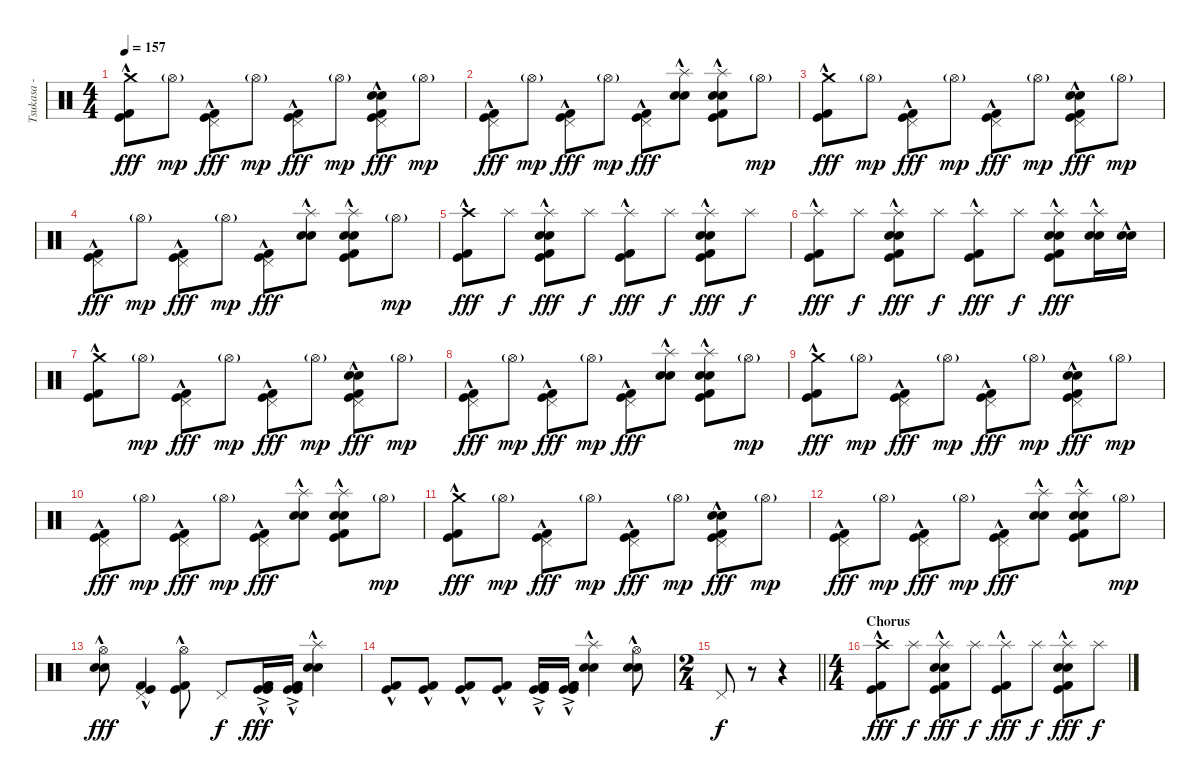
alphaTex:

\track ("Tsukasa - Drums" "Tsukasa - ") {instrument percussion}
\staff {score}
\articulation defaults
\ts (4 4)
\tempo 157
\clef neutral
\ks c
("Crash medium (hit)" "Kick (hit)"{hac} "Kick (hit) 2"{hac}).8{dy fff} "Hi-Hat (open)"{g}.8{dy mp} ("Pedal Hi-Hat (hit)" "Kick (hit)"{hac} "Kick (hit) 2"{hac}).8{dy fff} "Hi-Hat (open)"{g}.8{dy mp} ("Pedal Hi-Hat (hit)" "Kick (hit)"{hac} "Kick (hit) 2"{hac}).8{dy fff} "Hi-Hat (open)"{g}.8{dy mp} ("Pedal Hi-Hat (hit)" "Electric Snare (hit)"{hac} "Snare (hit) 2"{hac} "Kick (hit)"{hac} "Kick (hit) 2"{hac}).8{dy fff} "Hi-Hat (open)"{g}.8{dy mp} |
("Pedal Hi-Hat (hit)" "Kick (hit)"{hac} "Kick (hit) 2"{hac}).8{dy fff} "Hi-Hat (open)"{g}.8{dy mp} ("Pedal Hi-Hat (hit)" "Kick (hit)"{hac} "Kick (hit) 2"{hac}).8{dy fff} "Hi-Hat (open)"{g}.8{dy mp} ("Pedal Hi-Hat (hit)" "Kick (hit)"{hac} "Kick (hit) 2"{hac}).8{dy fff} ("Splash (hit)"{hac} "Electric Snare (hit)"{hac} "Snare (hit) 2"{hac}).8 ("Splash (hit)"{hac} "Electric Snare (hit)"{hac} "Snare (hit) 2"{hac} "Kick (hit)"{hac} "Kick (hit) 2"{hac}).8 "Hi-Hat (open)"{g}.8{dy mp} |
("Crash medium (hit)" "Kick (hit)"{hac} "Kick (hit) 2"{hac}).8{dy fff} "Hi-Hat (open)"{g}.8{dy mp} ("Pedal Hi-Hat (hit)" "Kick (hit)"{hac} "Kick (hit) 2"{hac}).8{dy fff} "Hi-Hat (open)"{g}.8{dy mp} ("Pedal Hi-Hat (hit)" "Kick (hit)"{hac} "Kick (hit) 2"{hac}).8{dy fff} "Hi-Hat (open)"{g}.8{dy mp} ("Pedal Hi-Hat (hit)" "Electric Snare (hit)"{hac} "Snare (hit) 2"{hac} "Kick (hit)"{hac} "Kick (hit) 2"{hac}).8{dy fff} "Hi-Hat (open)"{g}.8{dy mp} |
("Pedal Hi-Hat (hit)" "Kick (hit)"{hac} "Kick (hit) 2"{hac}).8{dy fff} "Hi-Hat (open)"{g}.8{dy mp} ("Pedal Hi-Hat (hit)" "Kick (hit)"{hac} "Kick (hit) 2"{hac}).8{dy fff} "Hi-Hat (open)"{g}.8{dy mp} ("Pedal Hi-Hat (hit)" "Kick (hit)"{hac} "Kick (hit) 2"{hac}).8{dy fff} ("Splash (hit)"{hac} "Electric Snare (hit)"{hac} "Snare (hit) 2"{hac}).8 ("Splash (hit)"{hac} "Electric Snare (hit)"{hac} "Snare (hit) 2"{hac} "Kick (hit)"{hac} "Kick (hit) 2"{hac}).8 "Hi-Hat (open)"{g}.8{dy mp} |
("Crash high (hit)" "Kick (hit)"{hac} "Kick (hit) 2"{hac}).8{dy fff} "Splash (hit)".8{dy f} ("Splash (hit)"{hac} "Electric Snare (hit)"{hac} "Snare (hit) 2" "Kick (hit)"{hac} "Kick (hit) 2"{hac}).8{dy fff} "Splash (hit)".8{dy f} ("Splash (hit)"{hac} "Kick (hit)"{hac} "Kick (hit) 2"{hac}).8{dy fff} "Splash (hit)".8{dy f} ("Splash (hit)"{hac} "Electric Snare (hit)"{hac} "Snare (hit) 2" "Kick (hit)"{hac} "Kick (hit) 2"{hac}).8{dy fff} "Splash (hit)".8{dy f} |
("Splash (hit)"{hac} "Kick (hit)"{hac} "Kick (hit) 2"{hac}).8{dy fff} "Splash (hit)".8{dy f} ("Splash (hit)"{hac} "Electric Snare (hit)"{hac} "Snare (hit) 2" "Kick (hit)"{hac} "Kick (hit) 2"{hac}).8{dy fff} "Splash (hit)".8{dy f} ("Splash (hit)"{hac} "Kick (hit)"{hac} "Kick (hit) 2"{hac}).8{dy fff} "Splash (hit)".8{dy f} ("Splash (hit)"{hac} "Electric Snare (hit)"{hac} "Snare (hit) 2"{hac} "Kick (hit)"{hac} "Kick (hit) 2"{hac}).8{dy fff} ("Splash (hit)" "Electric Snare (hit)"{hac} "Snare (hit) 2"{hac}).16 ("Electric Snare (hit)"{hac} "Snare (hit) 2"{hac}).16 |
("Crash medium (hit)" "Kick (hit)"{hac} "Kick (hit) 2"{hac}).8 "Hi-Hat (open)"{g}.8{dy mp} ("Pedal Hi-Hat (hit)" "Kick (hit)"{hac} "Kick (hit) 2"{hac}).8{dy fff} "Hi-Hat (open)"{g}.8{dy mp} ("Pedal Hi-Hat (hit)" "Kick (hit)"{hac} "Kick (hit) 2"{hac}).8{dy fff} "Hi-Hat (open)"{g}.8{dy mp} ("Pedal Hi-Hat (hit)" "Electric Snare (hit)"{hac} "Snare (hit) 2"{hac} "Kick (hit)"{hac} "Kick (hit) 2"{hac}).8{dy fff} "Hi-Hat (open)"{g}.8{dy mp} |
("Pedal Hi-Hat (hit)" "Kick (hit)"{hac} "Kick (hit) 2"{hac}).8{dy fff} "Hi-Hat (open)"{g}.8{dy mp} ("Pedal Hi-Hat (hit)" "Kick (hit)"{hac} "Kick (hit) 2"{hac}).8{dy fff} "Hi-Hat (open)"{g}.8{dy mp} ("Pedal Hi-Hat (hit)" "Kick (hit)"{hac} "Kick (hit) 2"{hac}).8{dy fff} ("Splash (hit)"{hac} "Electric Snare (hit)"{hac} "Snare (hit) 2"{hac}).8 ("Splash (hit)"{hac} "Electric Snare (hit)"{hac} "Snare (hit) 2"{hac} "Kick (hit)"{hac} "Kick (hit) 2"{hac}).8 "Hi-Hat (open)"{g}.8{dy mp} |
("Crash medium (hit)" "Kick (hit)"{hac} "Kick (hit) 2"{hac}).8{dy fff} "Hi-Hat (open)"{g}.8{dy mp} ("Pedal Hi-Hat (hit)" "Kick (hit)"{hac} "Kick (hit) 2"{hac}).8{dy fff} "Hi-Hat (open)"{g}.8{dy mp} ("Pedal Hi-Hat (hit)" "Kick (hit)"{hac} "Kick (hit) 2"{hac}).8{dy fff} "Hi-Hat (open)"{g}.8{dy mp} ("Pedal Hi-Hat (hit)" "Electric Snare (hit)"{hac} "Snare (hit) 2"{hac} "Kick (hit)"{hac} "Kick (hit) 2"{hac}).8{dy fff} "Hi-Hat (open)"{g}.8{dy mp} |
("Pedal Hi-Hat (hit)" "Kick (hit)"{hac} "Kick (hit) 2"{hac}).8{dy fff} "Hi-Hat (open)"{g}.8{dy mp} ("Pedal Hi-Hat (hit)" "Kick (hit)"{hac} "Kick (hit) 2"{hac}).8{dy fff} "Hi-Hat (open)"{g}.8{dy mp} ("Pedal Hi-Hat (hit)" "Kick (hit)"{hac} "Kick (hit) 2"{hac}).8{dy fff} ("Splash (hit)"{hac} "Electric Snare (hit)"{hac} "Snare (hit) 2"{hac}).8 ("Splash (hit)"{hac} "Electric Snare (hit)"{hac} "Snare (hit) 2"{hac} "Kick (hit)"{hac} "Kick (hit) 2"{hac}).8 "Hi-Hat (open)"{g}.8{dy mp} |
("Crash medium (hit)" "Kick (hit)"{hac} "Kick (hit) 2"{hac}).8{dy fff} "Hi-Hat (open)"{g}.8{dy mp} ("Pedal Hi-Hat (hit)" "Kick (hit)"{hac} "Kick (hit) 2"{hac}).8{dy fff} "Hi-Hat (open)"{g}.8{dy mp} ("Pedal Hi-Hat (hit)" "Kick (hit)"{hac} "Kick (hit) 2"{hac}).8{dy fff} "Hi-Hat (open)"{g}.8{dy mp} ("Pedal Hi-Hat (hit)" "Electric Snare (hit)"{hac} "Snare (hit) 2"{hac} "Kick (hit)"{hac} "Kick (hit) 2"{hac}).8{dy fff} "Hi-Hat (open)"{g}.8{dy mp} |
("Pedal Hi-Hat (hit)" "Kick (hit)"{hac} "Kick (hit) 2"{hac}).8{dy fff} "Hi-Hat (open)"{g}.8{dy mp} ("Pedal Hi-Hat (hit)" "Kick (hit)"{hac} "Kick (hit) 2"{hac}).8{dy fff} "Hi-Hat (open)"{g}.8{dy mp} ("Pedal Hi-Hat (hit)" "Kick (hit)"{hac} "Kick (hit) 2"{hac}).8{dy fff} ("Splash (hit)"{hac} "Electric Snare (hit)"{hac} "Snare (hit) 2"{hac}).8 ("Splash (hit)"{hac} "Electric Snare (hit)"{hac} "Snare (hit) 2"{hac} "Kick (hit)"{hac} "Kick (hit) 2"{hac}).8 "Hi-Hat (open)"{g}.8{dy mp} |
("Hi-Hat (open)" "Electric Snare (hit)"{hac} "Snare (hit) 2"{hac}).8{dy fff} ("Pedal Hi-Hat (hit)" "Kick (hit)"{hac} "Kick (hit) 2"{hac}).4 ("Hi-Hat (open)" "Kick (hit)"{hac} "Kick (hit) 2"{hac}).8 "Pedal Hi-Hat (hit)".8{dy f} ("Kick (hit)"{ac} "Kick (hit) 2"{ac} "Kick (hit)"{hac} "Kick (hit) 2"{hac}).16{dy fff} ("Kick (hit)"{ac} "Kick (hit) 2"{ac} "Kick (hit)"{hac} "Kick (hit) 2"{hac}).16 ("Splash (hit)"{hac} "Electric Snare (hit)"{hac} "Snare (hit) 2"{hac}).4 |
("Kick (hit)"{hac} "Kick (hit) 2"{hac}).8 ("Kick (hit)"{hac} "Kick (hit) 2"{hac}).8 ("Kick (hit)"{hac} "Kick (hit) 2"{hac}).8 ("Kick (hit)"{hac} "Kick (hit) 2"{hac}).8 ("Kick (hit)"{ac} "Kick (hit) 2"{ac} "Kick (hit)"{hac} "Kick (hit) 2"{hac}).16 ("Kick (hit)"{ac} "Kick (hit) 2"{ac} "Kick (hit)"{hac} "Kick (hit) 2"{hac}).16 ("Splash (hit)"{hac} "Electric Snare (hit)"{hac} "Snare (hit) 2"{hac}).4 ("Hi-Hat (open)" "Electric Snare (hit)"{hac} "Snare (hit) 2"{hac}).8 |
\ts (2 4)
\barLineRight lightlight "Pedal Hi-Hat (hit)".8{dy f}
r.8 r.4 |
\ts (4 4)
\section ("" "Chorus")
("Crash high (hit)" "Kick (hit)"{hac} "Kick (hit) 2"{hac}).8{dy fff} "Splash (hit)".8{dy f} ("Splash (hit)"{hac} "Electric Snare (hit)"{hac} "Snare (hit) 2" "Kick (hit)"{hac} "Kick (hit) 2"{hac}).8{dy fff} "Splash (hit)".8{dy f} ("Splash (hit)"{hac} "Kick (hit)"{hac} "Kick (hit) 2"{hac}).8{dy fff} "Splash (hit)".8{dy f} ("Splash (hit)"{hac} "Electric Snare (hit)"{hac} "Snare (hit) 2" "Kick (hit)"{hac} "Kick (hit) 2"{hac}).8{dy fff} "Splash (hit)".8{dy f}
